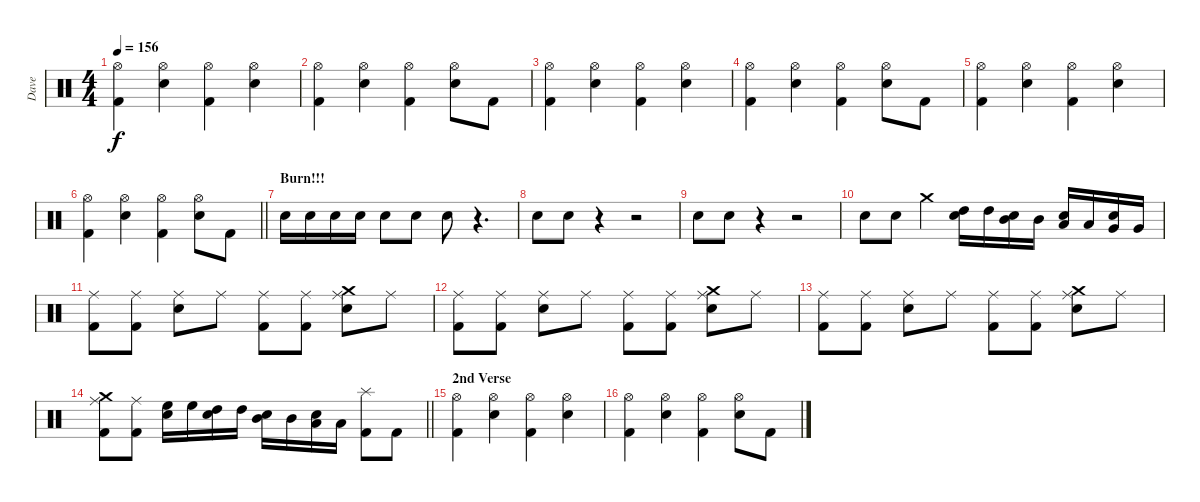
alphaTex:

\track ("Dave" "Dave") {instrument percussion}
\staff {score}
\articulation defaults
\ts (4 4)
\tempo 156
\clef neutral
\ks c
("Kick (hit) 2" "Hi-Hat (open)").4{dy f} ("Hi-Hat (open)" "Electric Snare (hit)").4 ("Hi-Hat (open)" "Kick (hit) 2").4 ("Hi-Hat (open)" "Electric Snare (hit)").4 |
("Kick (hit) 2" "Hi-Hat (open)").4 ("Hi-Hat (open)" "Electric Snare (hit)").4 ("Hi-Hat (open)" "Kick (hit) 2").4 ("Hi-Hat (open)" "Electric Snare (hit)").8 "Kick (hit) 2".8 |
("Kick (hit) 2" "Hi-Hat (open)").4 ("Hi-Hat (open)" "Electric Snare (hit)").4 ("Hi-Hat (open)" "Kick (hit) 2").4 ("Hi-Hat (open)" "Electric Snare (hit)").4 |
("Kick (hit) 2" "Hi-Hat (open)").4 ("Hi-Hat (open)" "Electric Snare (hit)").4 ("Hi-Hat (open)" "Kick (hit) 2").4 ("Hi-Hat (open)" "Electric Snare (hit)").8 "Kick (hit) 2".8 |
("Kick (hit) 2" "Hi-Hat (open)").4 ("Hi-Hat (open)" "Electric Snare (hit)").4 ("Hi-Hat (open)" "Kick (hit) 2").4 ("Hi-Hat (open)" "Electric Snare (hit)").4 |
\barLineRight lightlight
("Kick (hit) 2" "Hi-Hat (open)").4 ("Hi-Hat (open)" "Electric Snare (hit)").4 ("Hi-Hat (open)" "Kick (hit) 2").4 ("Hi-Hat (open)" "Electric Snare (hit)").8 "Kick (hit) 2".8 |
\section ("" "Burn!!!")
"Electric Snare (hit)".16 "Electric Snare (hit)".16 "Electric Snare (hit)".16 "Electric Snare (hit)".16 "Electric Snare (hit)".8 "Electric Snare (hit)".8 "Electric Snare (hit)".8 r.4{d} |
"Electric Snare (hit)".8 "Electric Snare (hit)".8 r.4 r.2 |
"Electric Snare (hit)".8 "Electric Snare (hit)".8 r.4 r.2 |
"Electric Snare (hit)".8 "Electric Snare (hit)".8 "Crash medium (hit)".4 ("Electric Snare (hit)" "High Tom (hit)").16 "High Tom (hit)".16 ("Electric Snare (hit)" "Mid Tom (hit)").16 "Mid Tom (hit)".16 ("Electric Snare (hit)" "Low Tom (hit)").16 "Low Tom (hit)".16 ("Electric Snare (hit)" "Very Low Tom (hit)").16 "Very Low Tom (hit)".16 |
("Ride (middle)" "Kick (hit) 2").8 ("Ride (middle)" "Kick (hit) 2").8 ("Ride (middle)" "Electric Snare (hit)").8 "Ride (middle)".8 ("Ride (middle)" "Kick (hit) 2").8 ("Ride (middle)" "Kick (hit) 2").8 ("Ride (middle)" "Electric Snare (hit)" "Crash medium (hit)").8 "Ride (middle)".8 |
("Kick (hit) 2" "Ride (middle)").8 ("Ride (middle)" "Kick (hit) 2").8 ("Ride (middle)" "Electric Snare (hit)").8 "Ride (middle)".8 ("Ride (middle)" "Kick (hit) 2").8 ("Ride (middle)" "Kick (hit) 2").8 ("Ride (middle)" "Electric Snare (hit)" "Crash medium (hit)").8 "Ride (middle)".8 |
("Ride (middle)" "Kick (hit) 2").8 ("Ride (middle)" "Kick (hit) 2").8 ("Ride (middle)" "Electric Snare (hit)").8 "Ride (middle)".8 ("Ride (middle)" "Kick (hit) 2").8 ("Ride (middle)" "Kick (hit) 2").8 ("Ride (middle)" "Electric Snare (hit)" "Crash medium (hit)").8 "Ride (middle)".8 |
\barLineRight lightlight
("Ride (middle)" "Kick (hit) 2" "Crash medium (hit)").8 ("Ride (middle)" "Kick (hit) 2").8 ("Electric Snare (hit)" "High Floor Tom (hit)").16 "High Floor Tom (hit)".16 ("Electric Snare (hit)" "High Tom (hit)").16 "High Tom (hit)".16 ("Electric Snare (hit)" "Mid Tom (hit)").16 "Mid Tom (hit)".16 ("Electric Snare (hit)" "Low Tom (hit)").16 "Low Tom (hit)".16 ("Splash (hit)" "Kick (hit) 2").8 "Kick (hit) 2".8 |
\section ("" "2nd Verse")
("Kick (hit) 2" "Hi-Hat (open)").4 ("Hi-Hat (open)" "Electric Snare (hit)").4 ("Hi-Hat (open)" "Kick (hit) 2").4 ("Hi-Hat (open)" "Electric Snare (hit)").4 |
("Kick (hit) 2" "Hi-Hat (open)").4 ("Hi-Hat (open)" "Electric Snare (hit)").4 ("Kick (hit) 2" "Hi-Hat (open)").4 ("Hi-Hat (open)" "Electric Snare (hit)").8 "Kick (hit) 2".8
